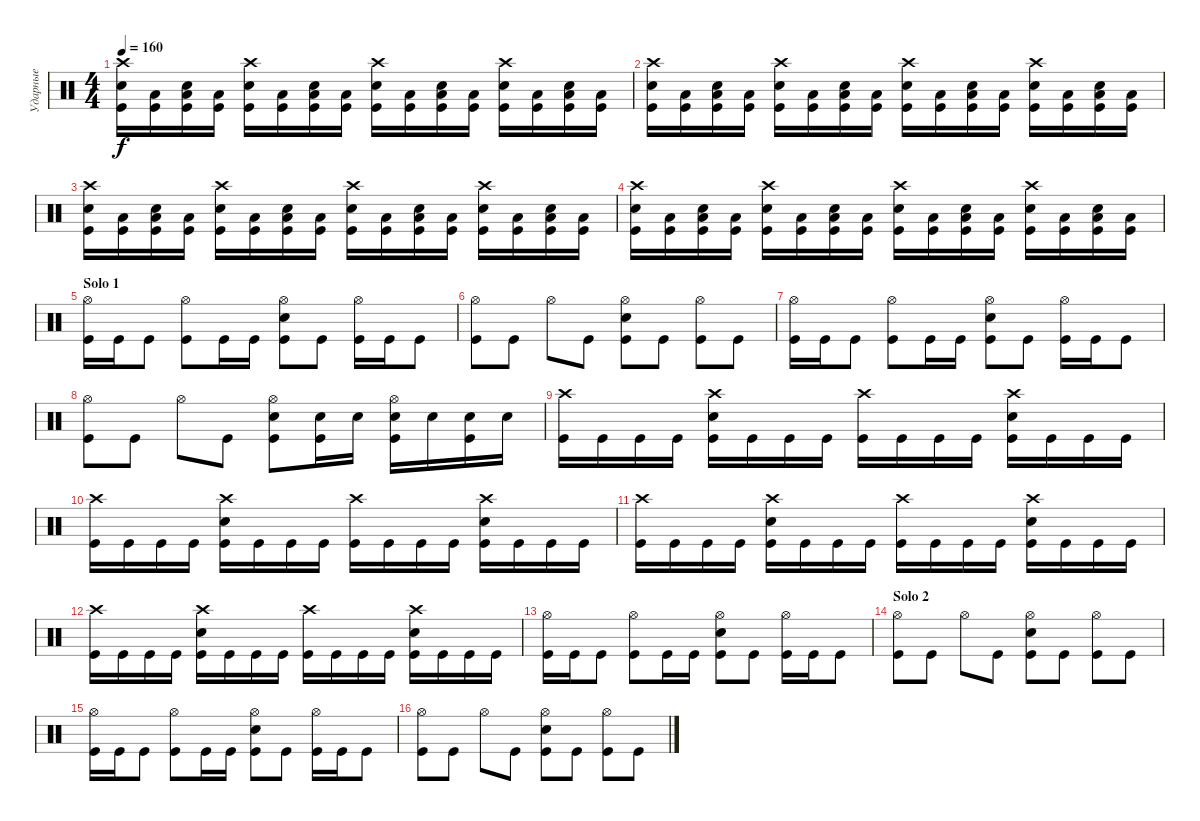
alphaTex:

\track ("Ударные" "Ударные") {instrument percussion}
\staff {score}
\articulation defaults
\ts (4 4)
\tempo 160
\clef neutral
\ks c
("Crash high (hit)" "Snare (hit) 2" "Kick (hit)").16{dy f} ("Low Tom (hit)" "Kick (hit)").16 ("Low Tom (hit)" "Snare (hit) 2" "Kick (hit)").16 ("Low Tom (hit)" "Kick (hit)").16 ("Crash high (hit)" "Snare (hit) 2" "Kick (hit)").16 ("Low Tom (hit)" "Kick (hit)").16 ("Low Tom (hit)" "Snare (hit) 2" "Kick (hit)").16 ("Low Tom (hit)" "Kick (hit)").16 ("Crash high (hit)" "Snare (hit) 2" "Kick (hit)").16 ("Low Tom (hit)" "Kick (hit)").16 ("Low Tom (hit)" "Snare (hit) 2" "Kick (hit)").16 ("Low Tom (hit)" "Kick (hit)").16 ("Crash high (hit)" "Snare (hit) 2" "Kick (hit)").16 ("Low Tom (hit)" "Kick (hit)").16 ("Low Tom (hit)" "Snare (hit) 2" "Kick (hit)").16 ("Low Tom (hit)" "Kick (hit)").16 |
("Crash high (hit)" "Snare (hit) 2" "Kick (hit)").16 ("Low Tom (hit)" "Kick (hit)").16 ("Low Tom (hit)" "Snare (hit) 2" "Kick (hit)").16 ("Low Tom (hit)" "Kick (hit)").16 ("Crash high (hit)" "Snare (hit) 2" "Kick (hit)").16 ("Low Tom (hit)" "Kick (hit)").16 ("Low Tom (hit)" "Snare (hit) 2" "Kick (hit)").16 ("Low Tom (hit)" "Kick (hit)").16 ("Crash high (hit)" "Snare (hit) 2" "Kick (hit)").16 ("Low Tom (hit)" "Kick (hit)").16 ("Low Tom (hit)" "Snare (hit) 2" "Kick (hit)").16 ("Low Tom (hit)" "Kick (hit)").16 ("Crash high (hit)" "Snare (hit) 2" "Kick (hit)").16 ("Low Tom (hit)" "Kick (hit)").16 ("Low Tom (hit)" "Snare (hit) 2" "Kick (hit)").16 ("Low Tom (hit)" "Kick (hit)").16 |
("Crash high (hit)" "Snare (hit) 2" "Kick (hit)").16 ("Low Tom (hit)" "Kick (hit)").16 ("Low Tom (hit)" "Snare (hit) 2" "Kick (hit)").16 ("Low Tom (hit)" "Kick (hit)").16 ("Crash high (hit)" "Snare (hit) 2" "Kick (hit)").16 ("Low Tom (hit)" "Kick (hit)").16 ("Low Tom (hit)" "Snare (hit) 2" "Kick (hit)").16 ("Low Tom (hit)" "Kick (hit)").16 ("Crash high (hit)" "Snare (hit) 2" "Kick (hit)").16 ("Low Tom (hit)" "Kick (hit)").16 ("Low Tom (hit)" "Snare (hit) 2" "Kick (hit)").16 ("Low Tom (hit)" "Kick (hit)").16 ("Crash high (hit)" "Snare (hit) 2" "Kick (hit)").16 ("Low Tom (hit)" "Kick (hit)").16 ("Low Tom (hit)" "Snare (hit) 2" "Kick (hit)").16 ("Low Tom (hit)" "Kick (hit)").16 |
("Crash high (hit)" "Snare (hit) 2" "Kick (hit)").16 ("Low Tom (hit)" "Kick (hit)").16 ("Low Tom (hit)" "Snare (hit) 2" "Kick (hit)").16 ("Low Tom (hit)" "Kick (hit)").16 ("Crash high (hit)" "Snare (hit) 2" "Kick (hit)").16 ("Low Tom (hit)" "Kick (hit)").16 ("Low Tom (hit)" "Snare (hit) 2" "Kick (hit)").16 ("Low Tom (hit)" "Kick (hit)").16 ("Crash high (hit)" "Snare (hit) 2" "Kick (hit)").16 ("Low Tom (hit)" "Kick (hit)").16 ("Low Tom (hit)" "Snare (hit) 2" "Kick (hit)").16 ("Low Tom (hit)" "Kick (hit)").16 ("Crash high (hit)" "Snare (hit) 2" "Kick (hit)").16 ("Low Tom (hit)" "Kick (hit)").16 ("Low Tom (hit)" "Snare (hit) 2" "Kick (hit)").16 ("Low Tom (hit)" "Kick (hit)").16 |
\section ("" "Solo 1")
("Hi-Hat (open)" "Kick (hit)").16 "Kick (hit)".16 "Kick (hit)".8 ("Hi-Hat (open)" "Kick (hit)").8 "Kick (hit)".16 "Kick (hit)".16 ("Hi-Hat (open)" "Snare (hit) 2" "Kick (hit)").8 "Kick (hit)".8 ("Hi-Hat (open)" "Kick (hit)").16 "Kick (hit)".16 "Kick (hit)".8 |
("Hi-Hat (open)" "Kick (hit)").8 "Kick (hit)".8 "Hi-Hat (open)".8 "Kick (hit)".8 ("Hi-Hat (open)" "Snare (hit) 2" "Kick (hit)").8 "Kick (hit)".8 ("Hi-Hat (open)" "Kick (hit)").8 "Kick (hit)".8 |
("Hi-Hat (open)" "Kick (hit)").16 "Kick (hit)".16 "Kick (hit)".8 ("Hi-Hat (open)" "Kick (hit)").8 "Kick (hit)".16 "Kick (hit)".16 ("Hi-Hat (open)" "Snare (hit) 2" "Kick (hit)").8 "Kick (hit)".8 ("Hi-Hat (open)" "Kick (hit)").16 "Kick (hit)".16 "Kick (hit)".8 |
("Hi-Hat (open)" "Kick (hit)").8 "Kick (hit)".8 "Hi-Hat (open)".8 "Kick (hit)".8 ("Hi-Hat (open)" "Snare (hit) 2" "Kick (hit)").8 ("Snare (hit) 2" "Kick (hit)").16 "Snare (hit) 2".16 ("Hi-Hat (open)" "Snare (hit) 2" "Kick (hit)").16 "Snare (hit) 2".16 ("Snare (hit) 2" "Kick (hit)").16 "Snare (hit) 2".16 |
("Crash high (hit)" "Kick (hit)").16 "Kick (hit)".16 "Kick (hit)".16 "Kick (hit)".16 ("Crash high (hit)" "Snare (hit) 2" "Kick (hit)").16 "Kick (hit)".16 "Kick (hit)".16 "Kick (hit)".16 ("Crash high (hit)" "Kick (hit)").16 "Kick (hit)".16 "Kick (hit)".16 "Kick (hit)".16 ("Crash high (hit)" "Snare (hit) 2" "Kick (hit)").16 "Kick (hit)".16 "Kick (hit)".16 "Kick (hit)".16 |
("Crash high (hit)" "Kick (hit)").16 "Kick (hit)".16 "Kick (hit)".16 "Kick (hit)".16 ("Crash high (hit)" "Snare (hit) 2" "Kick (hit)").16 "Kick (hit)".16 "Kick (hit)".16 "Kick (hit)".16 ("Crash high (hit)" "Kick (hit)").16 "Kick (hit)".16 "Kick (hit)".16 "Kick (hit)".16 ("Crash high (hit)" "Snare (hit) 2" "Kick (hit)").16 "Kick (hit)".16 "Kick (hit)".16 "Kick (hit)".16 |
("Crash high (hit)" "Kick (hit)").16 "Kick (hit)".16 "Kick (hit)".16 "Kick (hit)".16 ("Crash high (hit)" "Snare (hit) 2" "Kick (hit)").16 "Kick (hit)".16 "Kick (hit)".16 "Kick (hit)".16 ("Crash high (hit)" "Kick (hit)").16 "Kick (hit)".16 "Kick (hit)".16 "Kick (hit)".16 ("Crash high (hit)" "Snare (hit) 2" "Kick (hit)").16 "Kick (hit)".16 "Kick (hit)".16 "Kick (hit)".16 |
("Crash high (hit)" "Kick (hit)").16 "Kick (hit)".16 "Kick (hit)".16 "Kick (hit)".16 ("Crash high (hit)" "Snare (hit) 2" "Kick (hit)").16 "Kick (hit)".16 "Kick (hit)".16 "Kick (hit)".16 ("Crash high (hit)" "Kick (hit)").16 "Kick (hit)".16 "Kick (hit)".16 "Kick (hit)".16 ("Crash high (hit)" "Snare (hit) 2" "Kick (hit)").16 "Kick (hit)".16 "Kick (hit)".16 "Kick (hit)".16 |
("Hi-Hat (open)" "Kick (hit)").16 "Kick (hit)".16 "Kick (hit)".8 ("Hi-Hat (open)" "Kick (hit)").8 "Kick (hit)".16 "Kick (hit)".16 ("Hi-Hat (open)" "Snare (hit) 2" "Kick (hit)").8 "Kick (hit)".8 ("Hi-Hat (open)" "Kick (hit)").16 "Kick (hit)".16 "Kick (hit)".8 |
\section ("" "Solo 2")
("Hi-Hat (open)" "Kick (hit)").8 "Kick (hit)".8 "Hi-Hat (open)".8 "Kick (hit)".8 ("Hi-Hat (open)" "Snare (hit) 2" "Kick (hit)").8 "Kick (hit)".8 ("Hi-Hat (open)" "Kick (hit)").8 "Kick (hit)".8 |
("Hi-Hat (open)" "Kick (hit)").16 "Kick (hit)".16 "Kick (hit)".8 ("Hi-Hat (open)" "Kick (hit)").8 "Kick (hit)".16 "Kick (hit)".16 ("Hi-Hat (open)" "Snare (hit) 2" "Kick (hit)").8 "Kick (hit)".8 ("Hi-Hat (open)" "Kick (hit)").16 "Kick (hit)".16 "Kick (hit)".8 |
("Hi-Hat (open)" "Kick (hit)").8 "Kick (hit)".8 "Hi-Hat (open)".8 "Kick (hit)".8 ("Hi-Hat (open)" "Snare (hit) 2" "Kick (hit)").8 "Kick (hit)".8 ("Hi-Hat (open)" "Kick (hit)").8 "Kick (hit)".8
